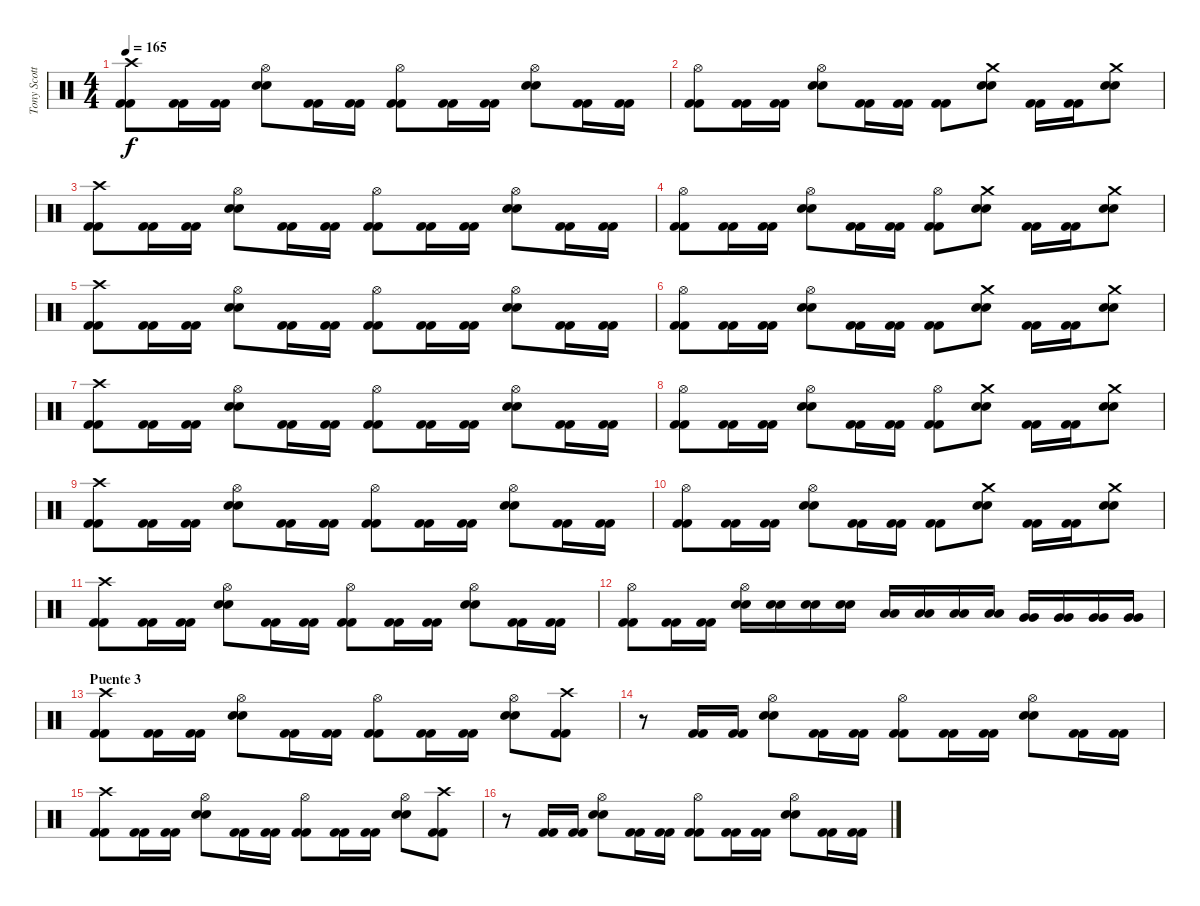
\track ("Tony Scotto (bateria)" "Tony Scott") {instrument percussion}
\staff {score}
\articulation defaults
\ts (4 4)
\tempo 165
\clef neutral
\ks c
("Crash high (hit)" "Kick (hit) 2" "Kick (hit) 2").8{dy f} ("Kick (hit) 2" "Kick (hit) 2").16 ("Kick (hit) 2" "Kick (hit) 2").16 ("Hi-Hat (open)" "Snare (hit) 2" "Snare (hit) 2").8 ("Kick (hit) 2" "Kick (hit) 2").16 ("Kick (hit) 2" "Kick (hit) 2").16 ("Hi-Hat (open)" "Kick (hit) 2" "Kick (hit) 2").8 ("Kick (hit) 2" "Kick (hit) 2").16 ("Kick (hit) 2" "Kick (hit) 2").16 ("Hi-Hat (open)" "Snare (hit) 2" "Snare (hit) 2").8 ("Kick (hit) 2" "Kick (hit) 2").16 ("Kick (hit) 2" "Kick (hit) 2").16 |
("Hi-Hat (open)" "Kick (hit) 2" "Kick (hit) 2").8 ("Kick (hit) 2" "Kick (hit) 2").16 ("Kick (hit) 2" "Kick (hit) 2").16 ("Hi-Hat (open)" "Snare (hit) 2" "Snare (hit) 2").8 ("Kick (hit) 2" "Kick (hit) 2").16 ("Kick (hit) 2" "Kick (hit) 2").16 ("Kick (hit) 2" "Kick (hit) 2").8 ("Crash medium (hit)" "Snare (hit) 2" "Snare (hit) 2").8 ("Kick (hit) 2" "Kick (hit) 2").16 ("Kick (hit) 2" "Kick (hit) 2").16 ("Crash medium (hit)" "Snare (hit) 2" "Snare (hit) 2").8 |
("Crash high (hit)" "Kick (hit) 2" "Kick (hit) 2").8 ("Kick (hit) 2" "Kick (hit) 2").16 ("Kick (hit) 2" "Kick (hit) 2").16 ("Hi-Hat (open)" "Snare (hit) 2" "Snare (hit) 2").8 ("Kick (hit) 2" "Kick (hit) 2").16 ("Kick (hit) 2" "Kick (hit) 2").16 ("Hi-Hat (open)" "Kick (hit) 2" "Kick (hit) 2").8 ("Kick (hit) 2" "Kick (hit) 2").16 ("Kick (hit) 2" "Kick (hit) 2").16 ("Hi-Hat (open)" "Snare (hit) 2" "Snare (hit) 2").8 ("Kick (hit) 2" "Kick (hit) 2").16 ("Kick (hit) 2" "Kick (hit) 2").16 |
("Hi-Hat (open)" "Kick (hit) 2" "Kick (hit) 2").8 ("Kick (hit) 2" "Kick (hit) 2").16 ("Kick (hit) 2" "Kick (hit) 2").16 ("Hi-Hat (open)" "Snare (hit) 2" "Snare (hit) 2").8 ("Kick (hit) 2" "Kick (hit) 2").16 ("Kick (hit) 2" "Kick (hit) 2").16 ("Hi-Hat (open)" "Kick (hit) 2" "Kick (hit) 2").8 ("Crash medium (hit)" "Snare (hit) 2" "Snare (hit) 2").8 ("Kick (hit) 2" "Kick (hit) 2").16 ("Kick (hit) 2" "Kick (hit) 2").16 ("Crash medium (hit)" "Snare (hit) 2" "Snare (hit) 2").8 |
("Crash high (hit)" "Kick (hit) 2" "Kick (hit) 2").8 ("Kick (hit) 2" "Kick (hit) 2").16 ("Kick (hit) 2" "Kick (hit) 2").16 ("Hi-Hat (open)" "Snare (hit) 2" "Snare (hit) 2").8 ("Kick (hit) 2" "Kick (hit) 2").16 ("Kick (hit) 2" "Kick (hit) 2").16 ("Hi-Hat (open)" "Kick (hit) 2" "Kick (hit) 2").8 ("Kick (hit) 2" "Kick (hit) 2").16 ("Kick (hit) 2" "Kick (hit) 2").16 ("Hi-Hat (open)" "Snare (hit) 2" "Snare (hit) 2").8 ("Kick (hit) 2" "Kick (hit) 2").16 ("Kick (hit) 2" "Kick (hit) 2").16 |
("Hi-Hat (open)" "Kick (hit) 2" "Kick (hit) 2").8 ("Kick (hit) 2" "Kick (hit) 2").16 ("Kick (hit) 2" "Kick (hit) 2").16 ("Hi-Hat (open)" "Snare (hit) 2" "Snare (hit) 2").8 ("Kick (hit) 2" "Kick (hit) 2").16 ("Kick (hit) 2" "Kick (hit) 2").16 ("Kick (hit) 2" "Kick (hit) 2").8 ("Crash medium (hit)" "Snare (hit) 2" "Snare (hit) 2").8 ("Kick (hit) 2" "Kick (hit) 2").16 ("Kick (hit) 2" "Kick (hit) 2").16 ("Crash medium (hit)" "Snare (hit) 2" "Snare (hit) 2").8 |
("Crash high (hit)" "Kick (hit) 2" "Kick (hit) 2").8 ("Kick (hit) 2" "Kick (hit) 2").16 ("Kick (hit) 2" "Kick (hit) 2").16 ("Hi-Hat (open)" "Snare (hit) 2" "Snare (hit) 2").8 ("Kick (hit) 2" "Kick (hit) 2").16 ("Kick (hit) 2" "Kick (hit) 2").16 ("Hi-Hat (open)" "Kick (hit) 2" "Kick (hit) 2").8 ("Kick (hit) 2" "Kick (hit) 2").16 ("Kick (hit) 2" "Kick (hit) 2").16 ("Hi-Hat (open)" "Snare (hit) 2" "Snare (hit) 2").8 ("Kick (hit) 2" "Kick (hit) 2").16 ("Kick (hit) 2" "Kick (hit) 2").16 |
("Hi-Hat (open)" "Kick (hit) 2" "Kick (hit) 2").8 ("Kick (hit) 2" "Kick (hit) 2").16 ("Kick (hit) 2" "Kick (hit) 2").16 ("Hi-Hat (open)" "Snare (hit) 2" "Snare (hit) 2").8 ("Kick (hit) 2" "Kick (hit) 2").16 ("Kick (hit) 2" "Kick (hit) 2").16 ("Hi-Hat (open)" "Kick (hit) 2" "Kick (hit) 2").8 ("Crash medium (hit)" "Snare (hit) 2" "Snare (hit) 2").8 ("Kick (hit) 2" "Kick (hit) 2").16 ("Kick (hit) 2" "Kick (hit) 2").16 ("Crash medium (hit)" "Snare (hit) 2" "Snare (hit) 2").8 |
("Crash high (hit)" "Kick (hit) 2" "Kick (hit) 2").8 ("Kick (hit) 2" "Kick (hit) 2").16 ("Kick (hit) 2" "Kick (hit) 2").16 ("Hi-Hat (open)" "Snare (hit) 2" "Snare (hit) 2").8 ("Kick (hit) 2" "Kick (hit) 2").16 ("Kick (hit) 2" "Kick (hit) 2").16 ("Hi-Hat (open)" "Kick (hit) 2" "Kick (hit) 2").8 ("Kick (hit) 2" "Kick (hit) 2").16 ("Kick (hit) 2" "Kick (hit) 2").16 ("Hi-Hat (open)" "Snare (hit) 2" "Snare (hit) 2").8 ("Kick (hit) 2" "Kick (hit) 2").16 ("Kick (hit) 2" "Kick (hit) 2").16 |
("Hi-Hat (open)" "Kick (hit) 2" "Kick (hit) 2").8 ("Kick (hit) 2" "Kick (hit) 2").16 ("Kick (hit) 2" "Kick (hit) 2").16 ("Hi-Hat (open)" "Snare (hit) 2" "Snare (hit) 2").8 ("Kick (hit) 2" "Kick (hit) 2").16 ("Kick (hit) 2" "Kick (hit) 2").16 ("Kick (hit) 2" "Kick (hit) 2").8 ("Crash medium (hit)" "Snare (hit) 2" "Snare (hit) 2").8 ("Kick (hit) 2" "Kick (hit) 2").16 ("Kick (hit) 2" "Kick (hit) 2").16 ("Crash medium (hit)" "Snare (hit) 2" "Snare (hit) 2").8 |
("Crash high (hit)" "Kick (hit) 2" "Kick (hit) 2").8 ("Kick (hit) 2" "Kick (hit) 2").16 ("Kick (hit) 2" "Kick (hit) 2").16 ("Hi-Hat (open)" "Snare (hit) 2" "Snare (hit) 2").8 ("Kick (hit) 2" "Kick (hit) 2").16 ("Kick (hit) 2" "Kick (hit) 2").16 ("Hi-Hat (open)" "Kick (hit) 2" "Kick (hit) 2").8 ("Kick (hit) 2" "Kick (hit) 2").16 ("Kick (hit) 2" "Kick (hit) 2").16 ("Hi-Hat (open)" "Snare (hit) 2" "Snare (hit) 2").8 ("Kick (hit) 2" "Kick (hit) 2").16 ("Kick (hit) 2" "Kick (hit) 2").16 |
("Hi-Hat (open)" "Kick (hit) 2" "Kick (hit) 2").8 ("Kick (hit) 2" "Kick (hit) 2").16 ("Kick (hit) 2" "Kick (hit) 2").16 ("Hi-Hat (open)" "Snare (hit) 2" "Snare (hit) 2").16 ("Snare (hit) 2" "Snare (hit) 2").16 ("Snare (hit) 2" "Snare (hit) 2").16 ("Snare (hit) 2" "Snare (hit) 2").16 ("Low Tom (hit)" "Low Tom (hit)").16 ("Low Tom (hit)" "Low Tom (hit)").16 ("Low Tom (hit)" "Low Tom (hit)").16 ("Low Tom (hit)" "Low Tom (hit)").16 ("Very Low Tom (hit)" "Very Low Tom (hit)").16 ("Very Low Tom (hit)" "Very Low Tom (hit)").16 ("Very Low Tom (hit)" "Very Low Tom (hit)").16 ("Very Low Tom (hit)" "Very Low Tom (hit)").16 |
\section ("" "Puente 3")
("Crash high (hit)" "Kick (hit) 2" "Kick (hit) 2").8 ("Kick (hit) 2" "Kick (hit) 2").16 ("Kick (hit) 2" "Kick (hit) 2").16 ("Hi-Hat (open)" "Snare (hit) 2" "Snare (hit) 2").8 ("Kick (hit) 2" "Kick (hit) 2").16 ("Kick (hit) 2" "Kick (hit) 2").16 ("Hi-Hat (open)" "Kick (hit) 2" "Kick (hit) 2").8 ("Kick (hit) 2" "Kick (hit) 2").16 ("Kick (hit) 2" "Kick (hit) 2").16 ("Hi-Hat (open)" "Snare (hit) 2" "Snare (hit) 2").8 ("Crash high (hit)" "Kick (hit) 2" "Kick (hit) 2").8 |
r.8 ("Kick (hit) 2" "Kick (hit) 2").16 ("Kick (hit) 2" "Kick (hit) 2").16 ("Hi-Hat (open)" "Snare (hit) 2" "Snare (hit) 2").8 ("Kick (hit) 2" "Kick (hit) 2").16 ("Kick (hit) 2" "Kick (hit) 2").16 ("Hi-Hat (open)" "Kick (hit) 2" "Kick (hit) 2").8 ("Kick (hit) 2" "Kick (hit) 2").16 ("Kick (hit) 2" "Kick (hit) 2").16 ("Hi-Hat (open)" "Snare (hit) 2" "Snare (hit) 2").8 ("Kick (hit) 2" "Kick (hit) 2").16 ("Kick (hit) 2" "Kick (hit) 2").16 |
("Crash high (hit)" "Kick (hit) 2" "Kick (hit) 2").8 ("Kick (hit) 2" "Kick (hit) 2").16 ("Kick (hit) 2" "Kick (hit) 2").16 ("Hi-Hat (open)" "Snare (hit) 2" "Snare (hit) 2").8 ("Kick (hit) 2" "Kick (hit) 2").16 ("Kick (hit) 2" "Kick (hit) 2").16 ("Hi-Hat (open)" "Kick (hit) 2" "Kick (hit) 2").8 ("Kick (hit) 2" "Kick (hit) 2").16 ("Kick (hit) 2" "Kick (hit) 2").16 ("Hi-Hat (open)" "Snare (hit) 2" "Snare (hit) 2").8 ("Crash high (hit)" "Kick (hit) 2" "Kick (hit) 2").8 |
r.8 ("Kick (hit) 2" "Kick (hit) 2").16 ("Kick (hit) 2" "Kick (hit) 2").16 ("Hi-Hat (open)" "Snare (hit) 2" "Snare (hit) 2").8 ("Kick (hit) 2" "Kick (hit) 2").16 ("Kick (hit) 2" "Kick (hit) 2").16 ("Hi-Hat (open)" "Kick (hit) 2" "Kick (hit) 2").8 ("Kick (hit) 2" "Kick (hit) 2").16 ("Kick (hit) 2" "Kick (hit) 2").16 ("Hi-Hat (open)" "Snare (hit) 2" "Snare (hit) 2").8 ("Kick (hit) 2" "Kick (hit) 2").16 ("Kick (hit) 2" "Kick (hit) 2").16
